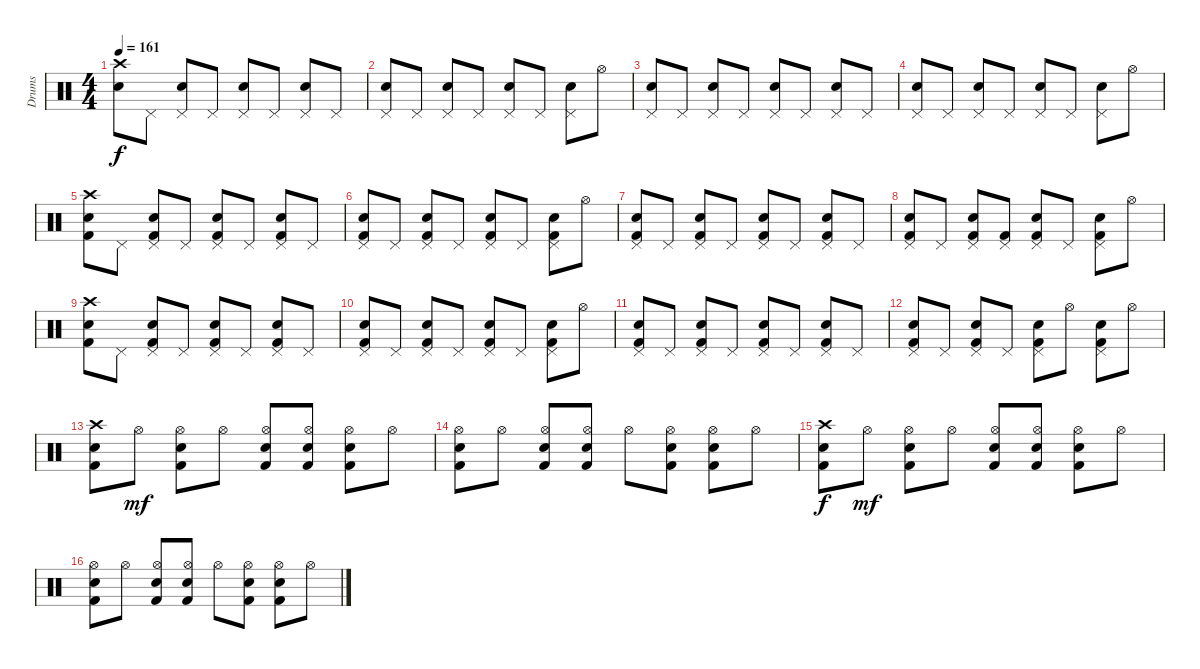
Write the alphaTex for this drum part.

\track ("Drums" "Drums") {instrument percussion}
\staff {score}
\articulation defaults
\ts (4 4)
\tempo 161
\clef neutral
\ks c
("Crash high (hit)" "Electric Snare (hit)").8{dy f} "Pedal Hi-Hat (hit)".8 ("Pedal Hi-Hat (hit)" "Electric Snare (hit)").8 "Pedal Hi-Hat (hit)".8 ("Pedal Hi-Hat (hit)" "Electric Snare (hit)").8 "Pedal Hi-Hat (hit)".8 ("Pedal Hi-Hat (hit)" "Electric Snare (hit)").8 "Pedal Hi-Hat (hit)".8 |
("Pedal Hi-Hat (hit)" "Electric Snare (hit)").8 "Pedal Hi-Hat (hit)".8 ("Pedal Hi-Hat (hit)" "Electric Snare (hit)").8 "Pedal Hi-Hat (hit)".8 ("Pedal Hi-Hat (hit)" "Electric Snare (hit)").8 "Pedal Hi-Hat (hit)".8 ("Pedal Hi-Hat (hit)" "Electric Snare (hit)").8 "Hi-Hat (open)".8 |
("Pedal Hi-Hat (hit)" "Electric Snare (hit)").8 "Pedal Hi-Hat (hit)".8 ("Pedal Hi-Hat (hit)" "Electric Snare (hit)").8 "Pedal Hi-Hat (hit)".8 ("Pedal Hi-Hat (hit)" "Electric Snare (hit)").8 "Pedal Hi-Hat (hit)".8 ("Pedal Hi-Hat (hit)" "Electric Snare (hit)").8 "Pedal Hi-Hat (hit)".8 |
("Pedal Hi-Hat (hit)" "Electric Snare (hit)").8 "Pedal Hi-Hat (hit)".8 ("Pedal Hi-Hat (hit)" "Electric Snare (hit)").8 "Pedal Hi-Hat (hit)".8 ("Pedal Hi-Hat (hit)" "Electric Snare (hit)").8 "Pedal Hi-Hat (hit)".8 ("Pedal Hi-Hat (hit)" "Electric Snare (hit)").8 "Hi-Hat (open)".8 |
("Crash high (hit)" "Electric Snare (hit)" "Kick (hit) 2").8 "Pedal Hi-Hat (hit)".8 ("Pedal Hi-Hat (hit)" "Electric Snare (hit)" "Kick (hit) 2").8 "Pedal Hi-Hat (hit)".8 ("Pedal Hi-Hat (hit)" "Electric Snare (hit)" "Kick (hit) 2").8 "Pedal Hi-Hat (hit)".8 ("Pedal Hi-Hat (hit)" "Electric Snare (hit)" "Kick (hit) 2").8 "Pedal Hi-Hat (hit)".8 |
("Pedal Hi-Hat (hit)" "Electric Snare (hit)" "Kick (hit) 2").8 "Pedal Hi-Hat (hit)".8 ("Pedal Hi-Hat (hit)" "Electric Snare (hit)" "Kick (hit) 2").8 "Pedal Hi-Hat (hit)".8 ("Pedal Hi-Hat (hit)" "Electric Snare (hit)" "Kick (hit) 2").8 "Pedal Hi-Hat (hit)".8 ("Pedal Hi-Hat (hit)" "Electric Snare (hit)" "Kick (hit) 2").8 "Hi-Hat (open)".8 |
("Pedal Hi-Hat (hit)" "Electric Snare (hit)" "Kick (hit) 2").8 "Pedal Hi-Hat (hit)".8 ("Pedal Hi-Hat (hit)" "Electric Snare (hit)" "Kick (hit) 2").8 "Pedal Hi-Hat (hit)".8 ("Pedal Hi-Hat (hit)" "Electric Snare (hit)" "Kick (hit) 2").8 "Pedal Hi-Hat (hit)".8 ("Pedal Hi-Hat (hit)" "Electric Snare (hit)" "Kick (hit) 2").8 "Pedal Hi-Hat (hit)".8 |
("Pedal Hi-Hat (hit)" "Electric Snare (hit)" "Kick (hit) 2").8 "Pedal Hi-Hat (hit)".8 ("Pedal Hi-Hat (hit)" "Electric Snare (hit)" "Kick (hit) 2").8 ("Pedal Hi-Hat (hit)" "Kick (hit) 2").8 ("Pedal Hi-Hat (hit)" "Electric Snare (hit)" "Kick (hit) 2").8 "Pedal Hi-Hat (hit)".8 ("Pedal Hi-Hat (hit)" "Electric Snare (hit)" "Kick (hit) 2").8 "Hi-Hat (open)".8 |
("Crash high (hit)" "Electric Snare (hit)" "Kick (hit) 2").8 "Pedal Hi-Hat (hit)".8 ("Pedal Hi-Hat (hit)" "Electric Snare (hit)" "Kick (hit) 2").8 "Pedal Hi-Hat (hit)".8 ("Pedal Hi-Hat (hit)" "Electric Snare (hit)" "Kick (hit) 2").8 "Pedal Hi-Hat (hit)".8 ("Pedal Hi-Hat (hit)" "Electric Snare (hit)" "Kick (hit) 2").8 "Pedal Hi-Hat (hit)".8 |
("Pedal Hi-Hat (hit)" "Electric Snare (hit)" "Kick (hit) 2").8 "Pedal Hi-Hat (hit)".8 ("Pedal Hi-Hat (hit)" "Electric Snare (hit)" "Kick (hit) 2").8 "Pedal Hi-Hat (hit)".8 ("Pedal Hi-Hat (hit)" "Electric Snare (hit)" "Kick (hit) 2").8 "Pedal Hi-Hat (hit)".8 ("Pedal Hi-Hat (hit)" "Electric Snare (hit)" "Kick (hit) 2").8 "Hi-Hat (open)".8 |
("Pedal Hi-Hat (hit)" "Electric Snare (hit)" "Kick (hit) 2").8 "Pedal Hi-Hat (hit)".8 ("Pedal Hi-Hat (hit)" "Electric Snare (hit)" "Kick (hit) 2").8 "Pedal Hi-Hat (hit)".8 ("Pedal Hi-Hat (hit)" "Electric Snare (hit)" "Kick (hit) 2").8 "Pedal Hi-Hat (hit)".8 ("Pedal Hi-Hat (hit)" "Electric Snare (hit)" "Kick (hit) 2").8 "Pedal Hi-Hat (hit)".8 |
("Pedal Hi-Hat (hit)" "Electric Snare (hit)" "Kick (hit) 2").8 "Pedal Hi-Hat (hit)".8 ("Pedal Hi-Hat (hit)" "Electric Snare (hit)" "Kick (hit) 2").8 "Pedal Hi-Hat (hit)".8 ("Pedal Hi-Hat (hit)" "Electric Snare (hit)" "Kick (hit) 2").8 "Hi-Hat (open)".8 ("Pedal Hi-Hat (hit)" "Electric Snare (hit)" "Kick (hit) 2").8 "Hi-Hat (open)".8 |
("Crash high (hit)" "Electric Snare (hit)" "Kick (hit) 2").8 "Hi-Hat (open)".8{dy mf} ("Hi-Hat (open)" "Electric Snare (hit)" "Kick (hit) 2").8 "Hi-Hat (open)".8 ("Hi-Hat (open)" "Electric Snare (hit)" "Kick (hit) 2").8 ("Hi-Hat (open)" "Electric Snare (hit)" "Kick (hit) 2").8 ("Hi-Hat (open)" "Electric Snare (hit)" "Kick (hit) 2").8 "Hi-Hat (open)".8 |
("Hi-Hat (open)" "Electric Snare (hit)" "Kick (hit) 2").8 "Hi-Hat (open)".8 ("Hi-Hat (open)" "Electric Snare (hit)" "Kick (hit) 2").8 ("Hi-Hat (open)" "Electric Snare (hit)" "Kick (hit) 2").8 "Hi-Hat (open)".8 ("Hi-Hat (open)" "Electric Snare (hit)" "Kick (hit) 2").8 ("Hi-Hat (open)" "Electric Snare (hit)" "Kick (hit) 2").8 "Hi-Hat (open)".8 |
("Crash high (hit)" "Electric Snare (hit)" "Kick (hit) 2").8{dy f} "Hi-Hat (open)".8{dy mf} ("Hi-Hat (open)" "Electric Snare (hit)" "Kick (hit) 2").8 "Hi-Hat (open)".8 ("Hi-Hat (open)" "Electric Snare (hit)" "Kick (hit) 2").8 ("Hi-Hat (open)" "Electric Snare (hit)" "Kick (hit) 2").8 ("Hi-Hat (open)" "Electric Snare (hit)" "Kick (hit) 2").8 "Hi-Hat (open)".8 |
("Hi-Hat (open)" "Electric Snare (hit)" "Kick (hit) 2").8 "Hi-Hat (open)".8 ("Hi-Hat (open)" "Electric Snare (hit)" "Kick (hit) 2").8 ("Hi-Hat (open)" "Electric Snare (hit)" "Kick (hit) 2").8 "Hi-Hat (open)".8 ("Hi-Hat (open)" "Electric Snare (hit)" "Kick (hit) 2").8 ("Hi-Hat (open)" "Electric Snare (hit)" "Kick (hit) 2").8 "Hi-Hat (open)".8
